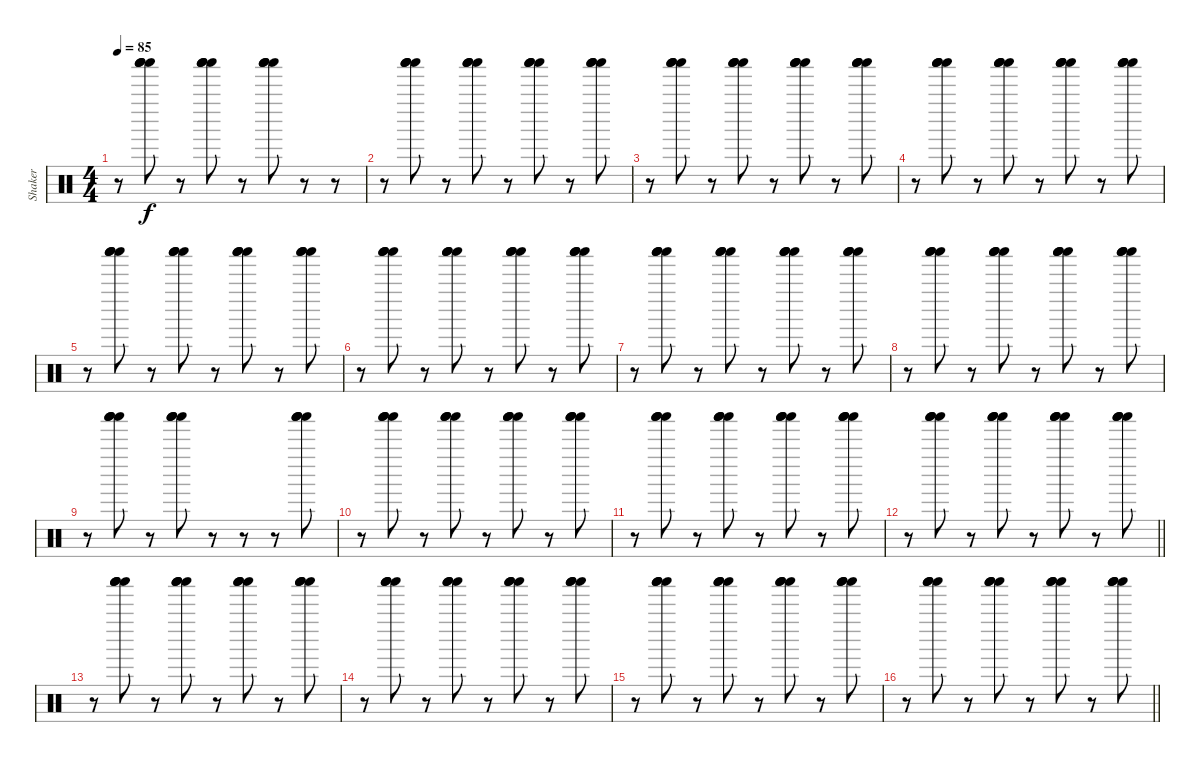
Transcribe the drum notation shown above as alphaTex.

\track ("Shaker" "Shaker") {instrument percussion}
\staff {score}
\articulation defaults
\ts (4 4)
\tempo 85
\clef neutral
\ks c
r.8{dy f} ("Shaker (hit)" "Shaker (hit)" "Shaker (hit)" "Shaker (hit)").8 r.8 ("Shaker (hit)" "Shaker (hit)" "Shaker (hit)" "Shaker (hit)").8 r.8 ("Shaker (hit)" "Shaker (hit)" "Shaker (hit)" "Shaker (hit)").8 r.8 r.8 |
r.8 ("Shaker (hit)" "Shaker (hit)" "Shaker (hit)" "Shaker (hit)").8 r.8 ("Shaker (hit)" "Shaker (hit)" "Shaker (hit)" "Shaker (hit)").8 r.8 ("Shaker (hit)" "Shaker (hit)" "Shaker (hit)" "Shaker (hit)").8 r.8 ("Shaker (hit)" "Shaker (hit)" "Shaker (hit)" "Shaker (hit)").8 |
r.8 ("Shaker (hit)" "Shaker (hit)" "Shaker (hit)" "Shaker (hit)").8 r.8 ("Shaker (hit)" "Shaker (hit)" "Shaker (hit)" "Shaker (hit)").8 r.8 ("Shaker (hit)" "Shaker (hit)" "Shaker (hit)" "Shaker (hit)").8 r.8 ("Shaker (hit)" "Shaker (hit)" "Shaker (hit)" "Shaker (hit)").8 |
r.8 ("Shaker (hit)" "Shaker (hit)" "Shaker (hit)" "Shaker (hit)").8 r.8 ("Shaker (hit)" "Shaker (hit)" "Shaker (hit)" "Shaker (hit)").8 r.8 ("Shaker (hit)" "Shaker (hit)" "Shaker (hit)" "Shaker (hit)").8 r.8 ("Shaker (hit)" "Shaker (hit)" "Shaker (hit)" "Shaker (hit)").8 |
r.8 ("Shaker (hit)" "Shaker (hit)" "Shaker (hit)" "Shaker (hit)").8 r.8 ("Shaker (hit)" "Shaker (hit)" "Shaker (hit)" "Shaker (hit)").8 r.8 ("Shaker (hit)" "Shaker (hit)" "Shaker (hit)" "Shaker (hit)").8 r.8 ("Shaker (hit)" "Shaker (hit)" "Shaker (hit)" "Shaker (hit)").8 |
r.8 ("Shaker (hit)" "Shaker (hit)" "Shaker (hit)" "Shaker (hit)").8 r.8 ("Shaker (hit)" "Shaker (hit)" "Shaker (hit)" "Shaker (hit)").8 r.8 ("Shaker (hit)" "Shaker (hit)" "Shaker (hit)" "Shaker (hit)").8 r.8 ("Shaker (hit)" "Shaker (hit)" "Shaker (hit)" "Shaker (hit)").8 |
r.8 ("Shaker (hit)" "Shaker (hit)" "Shaker (hit)" "Shaker (hit)").8 r.8 ("Shaker (hit)" "Shaker (hit)" "Shaker (hit)" "Shaker (hit)").8 r.8 ("Shaker (hit)" "Shaker (hit)" "Shaker (hit)" "Shaker (hit)").8 r.8 ("Shaker (hit)" "Shaker (hit)" "Shaker (hit)" "Shaker (hit)").8 |
r.8 ("Shaker (hit)" "Shaker (hit)" "Shaker (hit)" "Shaker (hit)").8 r.8 ("Shaker (hit)" "Shaker (hit)" "Shaker (hit)" "Shaker (hit)").8 r.8 ("Shaker (hit)" "Shaker (hit)" "Shaker (hit)" "Shaker (hit)").8 r.8 ("Shaker (hit)" "Shaker (hit)" "Shaker (hit)" "Shaker (hit)").8 |
r.8 ("Shaker (hit)" "Shaker (hit)" "Shaker (hit)" "Shaker (hit)").8 r.8 ("Shaker (hit)" "Shaker (hit)" "Shaker (hit)" "Shaker (hit)").8 r.8 r.8 r.8 ("Shaker (hit)" "Shaker (hit)" "Shaker (hit)" "Shaker (hit)").8 |
r.8 ("Shaker (hit)" "Shaker (hit)" "Shaker (hit)" "Shaker (hit)").8 r.8 ("Shaker (hit)" "Shaker (hit)" "Shaker (hit)" "Shaker (hit)").8 r.8 ("Shaker (hit)" "Shaker (hit)" "Shaker (hit)" "Shaker (hit)").8 r.8 ("Shaker (hit)" "Shaker (hit)" "Shaker (hit)" "Shaker (hit)").8 |
r.8 ("Shaker (hit)" "Shaker (hit)" "Shaker (hit)" "Shaker (hit)").8 r.8 ("Shaker (hit)" "Shaker (hit)" "Shaker (hit)" "Shaker (hit)").8 r.8 ("Shaker (hit)" "Shaker (hit)" "Shaker (hit)" "Shaker (hit)").8 r.8 ("Shaker (hit)" "Shaker (hit)" "Shaker (hit)" "Shaker (hit)").8 |
\barLineRight lightlight
r.8 ("Shaker (hit)" "Shaker (hit)" "Shaker (hit)" "Shaker (hit)").8 r.8 ("Shaker (hit)" "Shaker (hit)" "Shaker (hit)" "Shaker (hit)").8 r.8 ("Shaker (hit)" "Shaker (hit)" "Shaker (hit)" "Shaker (hit)").8 r.8 ("Shaker (hit)" "Shaker (hit)" "Shaker (hit)" "Shaker (hit)").8 |
r.8 ("Shaker (hit)" "Shaker (hit)" "Shaker (hit)" "Shaker (hit)").8 r.8 ("Shaker (hit)" "Shaker (hit)" "Shaker (hit)" "Shaker (hit)").8 r.8 ("Shaker (hit)" "Shaker (hit)" "Shaker (hit)" "Shaker (hit)").8 r.8 ("Shaker (hit)" "Shaker (hit)" "Shaker (hit)" "Shaker (hit)").8 |
r.8 ("Shaker (hit)" "Shaker (hit)" "Shaker (hit)" "Shaker (hit)").8 r.8 ("Shaker (hit)" "Shaker (hit)" "Shaker (hit)" "Shaker (hit)").8 r.8 ("Shaker (hit)" "Shaker (hit)" "Shaker (hit)" "Shaker (hit)").8 r.8 ("Shaker (hit)" "Shaker (hit)" "Shaker (hit)" "Shaker (hit)").8 |
r.8 ("Shaker (hit)" "Shaker (hit)" "Shaker (hit)" "Shaker (hit)").8 r.8 ("Shaker (hit)" "Shaker (hit)" "Shaker (hit)" "Shaker (hit)").8 r.8 ("Shaker (hit)" "Shaker (hit)" "Shaker (hit)" "Shaker (hit)").8 r.8 ("Shaker (hit)" "Shaker (hit)" "Shaker (hit)" "Shaker (hit)").8 |
\barLineRight lightlight
r.8 ("Shaker (hit)" "Shaker (hit)" "Shaker (hit)" "Shaker (hit)").8 r.8 ("Shaker (hit)" "Shaker (hit)" "Shaker (hit)" "Shaker (hit)").8 r.8 ("Shaker (hit)" "Shaker (hit)" "Shaker (hit)" "Shaker (hit)").8 r.8 ("Shaker (hit)" "Shaker (hit)" "Shaker (hit)" "Shaker (hit)").8
